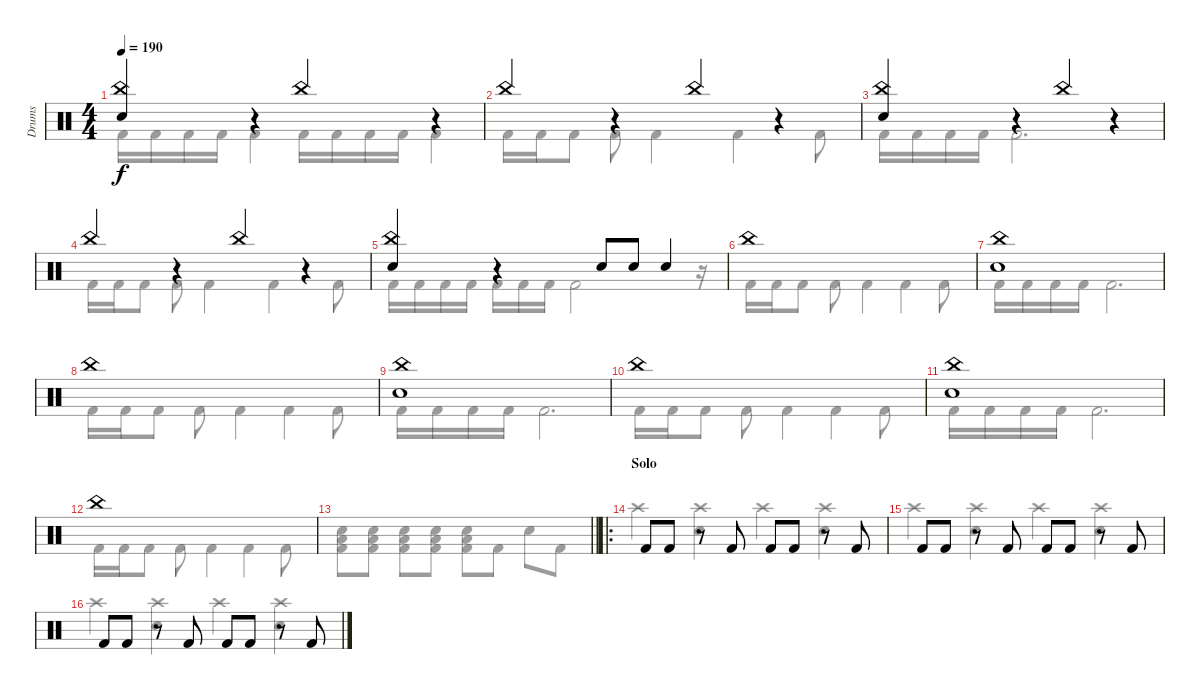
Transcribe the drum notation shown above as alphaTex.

\track ("Drums" "Drums") {instrument percussion}
\staff {score}
\articulation defaults
\voice
\ts (4 4)
\tempo 190
\clef neutral
\ks c
("Electric Snare (hit)" "China (hit)").4{dy f} r.4 "China (hit)".4 r.4 |
"China (hit)".4 r.4 "China (hit)".4 r.4 |
("Electric Snare (hit)" "China (hit)").4 r.4 "China (hit)".4 r.4 |
"China (hit)".4 r.4 "China (hit)".4 r.4 |
("Electric Snare (hit)" "China (hit)").4 r.4 "Electric Snare (hit)".8 "Electric Snare (hit)".8 "Electric Snare (hit)".4 |
"China (hit)".1 |
("Electric Snare (hit)" "China (hit)").1 |
"China (hit)".1 |
("Electric Snare (hit)" "China (hit)").1 |
"China (hit)".1 |
("Electric Snare (hit)" "China (hit)").1 |
"China (hit)".1 |
\barLineRight lightlight
|
\ro
\section ("" "Solo")
"Kick (hit) 2".8 "Kick (hit) 2".8 r.8 "Kick (hit) 2".8 "Kick (hit) 2".8 "Kick (hit) 2".8 r.8 "Kick (hit) 2".8 |
"Kick (hit) 2".8 "Kick (hit) 2".8 r.8 "Kick (hit) 2".8 "Kick (hit) 2".8 "Kick (hit) 2".8 r.8 "Kick (hit) 2".8 |
"Kick (hit) 2".8 "Kick (hit) 2".8 r.8 "Kick (hit) 2".8 "Kick (hit) 2".8 "Kick (hit) 2".8 r.8 "Kick (hit) 2".8
\voice
\clef neutral
\ottava regular
\simile none
\ks c "Kick (hit) 2".16{dy f} "Kick (hit) 2".16 "Kick (hit) 2".16 "Kick (hit) 2".16 "Kick (hit) 2".4 "Kick (hit) 2".16 "Kick (hit) 2".16 "Kick (hit) 2".16 "Kick (hit) 2".16 "Kick (hit) 2".4
|
"Kick (hit) 2".16 "Kick (hit) 2".16 "Kick (hit) 2".8 "Kick (hit) 2".8 "Kick (hit) 2".4 "Kick (hit) 2".4 "Kick (hit) 2".8 |
"Kick (hit) 2".16 "Kick (hit) 2".16 "Kick (hit) 2".16 "Kick (hit) 2".16 "Kick (hit) 2".2{d} |
"Kick (hit) 2".16 "Kick (hit) 2".16 "Kick (hit) 2".8 "Kick (hit) 2".8 "Kick (hit) 2".4 "Kick (hit) 2".4 "Kick (hit) 2".8 |
"Kick (hit) 2".16 "Kick (hit) 2".16 "Kick (hit) 2".16 "Kick (hit) 2".16 "Kick (hit) 2".16 "Kick (hit) 2".16 "Kick (hit) 2".16 "Kick (hit) 2".2 r.16 |
"Kick (hit) 2".16 "Kick (hit) 2".16 "Kick (hit) 2".8 "Kick (hit) 2".8 "Kick (hit) 2".4 "Kick (hit) 2".4 "Kick (hit) 2".8 |
"Kick (hit) 2".16 "Kick (hit) 2".16 "Kick (hit) 2".16 "Kick (hit) 2".16 "Kick (hit) 2".2{d} |
"Kick (hit) 2".16 "Kick (hit) 2".16 "Kick (hit) 2".8 "Kick (hit) 2".8 "Kick (hit) 2".4 "Kick (hit) 2".4 "Kick (hit) 2".8 |
"Kick (hit) 2".16 "Kick (hit) 2".16 "Kick (hit) 2".16 "Kick (hit) 2".16 "Kick (hit) 2".2{d} |
"Kick (hit) 2".16 "Kick (hit) 2".16 "Kick (hit) 2".8 "Kick (hit) 2".8 "Kick (hit) 2".4 "Kick (hit) 2".4 "Kick (hit) 2".8 |
"Kick (hit) 2".16 "Kick (hit) 2".16 "Kick (hit) 2".16 "Kick (hit) 2".16 "Kick (hit) 2".2{d} |
"Kick (hit) 2".16 "Kick (hit) 2".16 "Kick (hit) 2".8 "Kick (hit) 2".8 "Kick (hit) 2".4 "Kick (hit) 2".4 "Kick (hit) 2".8 |
\barLineRight lightlight
("Kick (hit) 2" "Low Floor Tom (hit)" "Electric Snare (hit)").8 ("Kick (hit) 2" "Low Floor Tom (hit)" "Electric Snare (hit)").8 ("Kick (hit) 2" "Low Floor Tom (hit)" "Electric Snare (hit)").8 ("Kick (hit) 2" "Low Floor Tom (hit)" "Electric Snare (hit)").8 ("Kick (hit) 2" "Low Floor Tom (hit)" "Electric Snare (hit)").8 "Kick (hit) 2".8 "Electric Snare (hit)".8 "Kick (hit) 2".8 |
"Crash high (hit)".4 ("Electric Snare (hit)" "Crash high (hit)").4 "Crash high (hit)".4 ("Electric Snare (hit)" "Crash high (hit)").4 |
"Crash high (hit)".4 ("Electric Snare (hit)" "Crash high (hit)").4 "Crash high (hit)".4 ("Electric Snare (hit)" "Crash high (hit)").4 |
"Crash high (hit)".4 ("Electric Snare (hit)" "Crash high (hit)").4 "Crash high (hit)".4 ("Electric Snare (hit)" "Crash high (hit)").4
